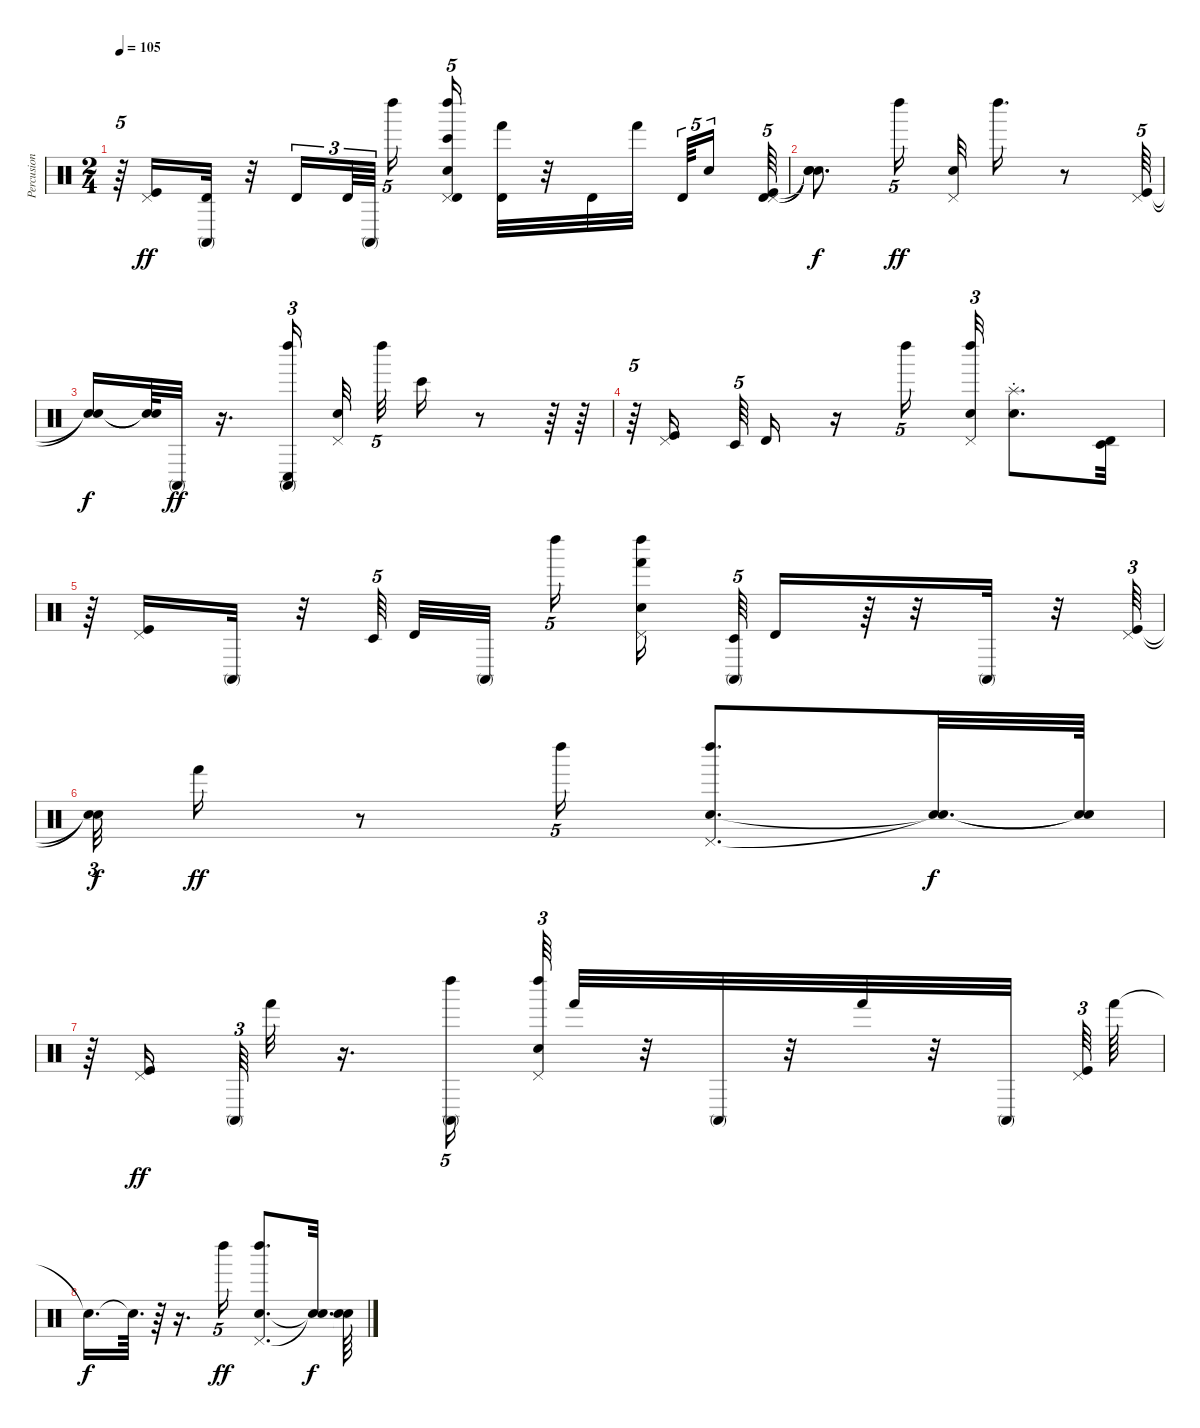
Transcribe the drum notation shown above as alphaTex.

\track ("Percusion" "Percusion") {instrument percussion}
\staff {score}
\articulation defaults
\ts (2 4)
\tempo 105
\clef neutral
\ks c
r.64{tu (5 4) dy ff} ("Kick (hit)" "Pedal Hi-Hat (hit)").16 ("Conga high (mute)" "Timbale high (hit)").32 r.32 "Timbale high (hit)".16{tu (3 2)} "Timbale high (hit)".64{tu (3 2)} "Conga high (mute)".64{tu (3 2) beam splitsecondary} "Left Maraca (hit)".16{tu (5 4)} ("Bongo High (hit)" "Electric Snare (hit)" "Pedal Hi-Hat (hit)" "Left Maraca (hit)" "Timbale high (hit)").16{tu (5 4)} ("Hand (hit)" "Timbale high (hit)").32 r.32 "Timbale high (hit)".32 "Hand (hit)".32{beam splitsecondary} "Timbale high (hit)".64{tu (5 4)} "Electric Snare (hit)".16{tu (5 4) beam splitsecondary} ("Timbale high (hit)" "Pedal Hi-Hat (hit)" "Kick (hit)").64{tu (5 4)} |
("Snare (hit)"{t} "Snare (hit)"{t} "Snare (hit)"{t}).8{d dy f} "Left Maraca (hit)".16{tu (5 4) dy ff} ("Pedal Hi-Hat (hit)" "Electric Snare (hit)").32 "Left Maraca (hit)".16{d} r.8 ("Kick (hit)" "Pedal Hi-Hat (hit)").64{tu (5 4)} |
("Snare (hit)"{t} "Snare (hit)"{t}).16{dy f} ("Snare (hit)"{t} "Snare (hit)"{t}).64 "Conga high (mute)".32{dy ff} r.16{d} ("Conga high (mute)" "Left Maraca (hit)" "Conga low (hit)").16{tu (3 2)} ("Electric Snare (hit)" "Pedal Hi-Hat (hit)").32 "Left Maraca (hit)".32{tu (5 4)} "Bongo High (hit)".16 r.8 r.64 r.64 |
r.64{tu (5 4)} ("Pedal Hi-Hat (hit)" "Kick (hit)").16{beam splitsecondary} "Timbale low (hit)".64{tu (5 4)} "Timbale high (hit)".16 r.16 "Left Maraca (hit)".16{tu (5 4)} ("Pedal Hi-Hat (hit)" "Electric Snare (hit)" "Left Maraca (hit)").32{tu (3 2)} ("Snare (hit)" "Splash (choke)").8{d} ("Timbale low (hit)" "Timbale high (hit)").32 |
r.64 ("Kick (hit)" "Pedal Hi-Hat (hit)").16 "Conga high (mute)".32 r.32 "Timbale low (hit)".64{tu (5 4) beam splitsecondary} "Timbale high (hit)".32 "Conga high (mute)".32{beam splitsecondary} "Left Maraca (hit)".16{tu (5 4)} ("Electric Snare (hit)" "Pedal Hi-Hat (hit)" "Left Maraca (hit)" "Hand (hit)").16{beam splitsecondary} ("Timbale low (hit)" "Conga high (mute)").64{tu (5 4)} "Timbale high (hit)".16 r.64 r.32 "Conga high (mute)".32 r.32 ("Pedal Hi-Hat (hit)" "Kick (hit)").64{tu (3 2)} |
("Snare (hit)"{t} "Snare (hit)"{t}).32{tu (3 2) dy f} "Hand (hit)".16{dy ff} r.8 "Left Maraca (hit)".16{tu (5 4)} ("Electric Snare (hit)" "Pedal Hi-Hat (hit)" "Left Maraca (hit)").8{d} ("Snare (hit)"{t} "Snare (hit)"{t}).32{d dy f} ("Snare (hit)"{t} "Snare (hit)"{t}).64 |
r.64 ("Kick (hit)" "Pedal Hi-Hat (hit)").16{dy ff beam splitsecondary} "Conga high (mute)".64{tu (3 2)} "Hand (hit)".32 r.16{d} ("Conga high (mute)" "Left Maraca (hit)").16{tu (5 4)} ("Pedal Hi-Hat (hit)" "Electric Snare (hit)" "Left Maraca (hit)").64{tu (3 2)} "Hand (hit)".32 r.32 "Conga high (mute)".32 r.32 "Hand (hit)".32 r.32 "Conga high (mute)".32 ("Pedal Hi-Hat (hit)" "Kick (hit)").64{tu (3 2)} "Hand (hit)".64 |
"Snare (hit)"{t}.16{d dy f} "Snare (hit)"{t}.64{d} r.64 r.16{d} "Left Maraca (hit)".16{tu (5 4) dy ff} ("Electric Snare (hit)" "Pedal Hi-Hat (hit)" "Left Maraca (hit)").8{d} ("Snare (hit)"{t} "Snare (hit)"{t}).32{d dy f} ("Snare (hit)"{t} "Snare (hit)"{t}).64
